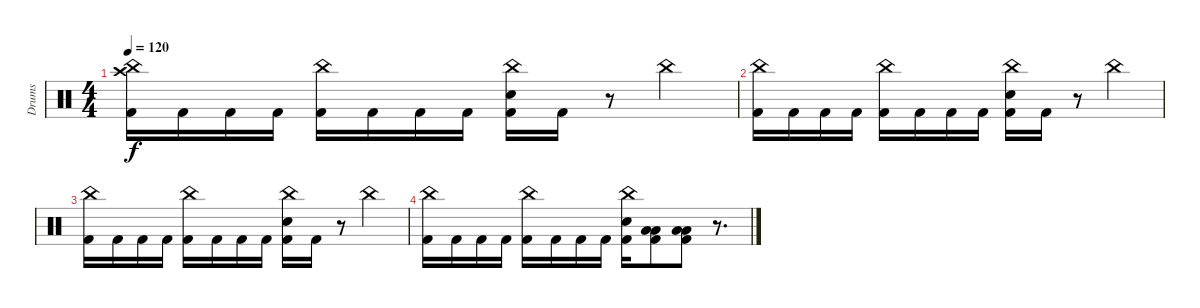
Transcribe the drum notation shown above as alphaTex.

\track ("Drums" "Drums") {instrument percussion}
\staff {score}
\articulation defaults
\ts (4 4)
\tempo 120
\clef neutral
\ks c
("China (hit)" "Crash high (hit)" "Kick (hit) 2").16{dy f} "Kick (hit) 2".16 "Kick (hit) 2".16 "Kick (hit) 2".16 ("China (hit)" "Kick (hit) 2").16 "Kick (hit) 2".16 "Kick (hit) 2".16 "Kick (hit) 2".16 ("China (hit)" "Electric Snare (hit)" "Kick (hit) 2").16 "Kick (hit) 2".16 r.8 "China (hit)".4 |
("China (hit)" "Kick (hit) 2").16 "Kick (hit) 2".16 "Kick (hit) 2".16 "Kick (hit) 2".16 ("China (hit)" "Kick (hit) 2").16 "Kick (hit) 2".16 "Kick (hit) 2".16 "Kick (hit) 2".16 ("China (hit)" "Electric Snare (hit)" "Kick (hit) 2").16 "Kick (hit) 2".16 r.8 "China (hit)".4 |
("China (hit)" "Kick (hit) 2").16 "Kick (hit) 2".16 "Kick (hit) 2".16 "Kick (hit) 2".16 ("China (hit)" "Kick (hit) 2").16 "Kick (hit) 2".16 "Kick (hit) 2".16 "Kick (hit) 2".16 ("China (hit)" "Electric Snare (hit)" "Kick (hit) 2").16 "Kick (hit) 2".16 r.8 "China (hit)".4 |
("China (hit)" "Kick (hit) 2").16 "Kick (hit) 2".16 "Kick (hit) 2".16 "Kick (hit) 2".16 ("China (hit)" "Kick (hit) 2").16 "Kick (hit) 2".16 "Kick (hit) 2".16 "Kick (hit) 2".16 ("China (hit)" "Electric Snare (hit)" "Kick (hit) 2").16 ("Low Floor Tom (hit)" "Low Floor Tom (hit)" "Kick (hit) 2").8 ("Low Floor Tom (hit)" "Low Floor Tom (hit)" "Kick (hit) 2").8 r.8{d}
